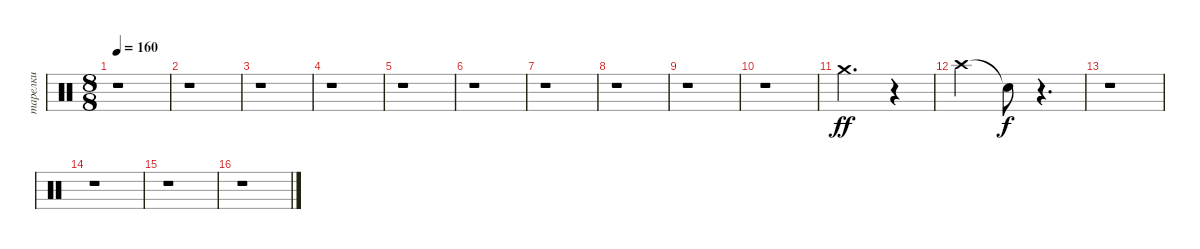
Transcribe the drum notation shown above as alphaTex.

\track ("тарелки" "тарелки") {instrument percussion}
\staff {score}
\articulation defaults
\ts (8 8)
\tempo 160
\clef neutral
\ks c
r.1{dy ff} |
r.1 |
r.1 |
r.1 |
r.1 |
r.1 |
r.1 |
r.1 |
r.1 |
r.1 |
"Crash medium (hit)".2{d} r.4 |
"Crash high (hit)".2 "Snare (hit)"{t}.8{dy f} r.4{d} |
r.1 |
r.1 |
r.1 |
r.1
